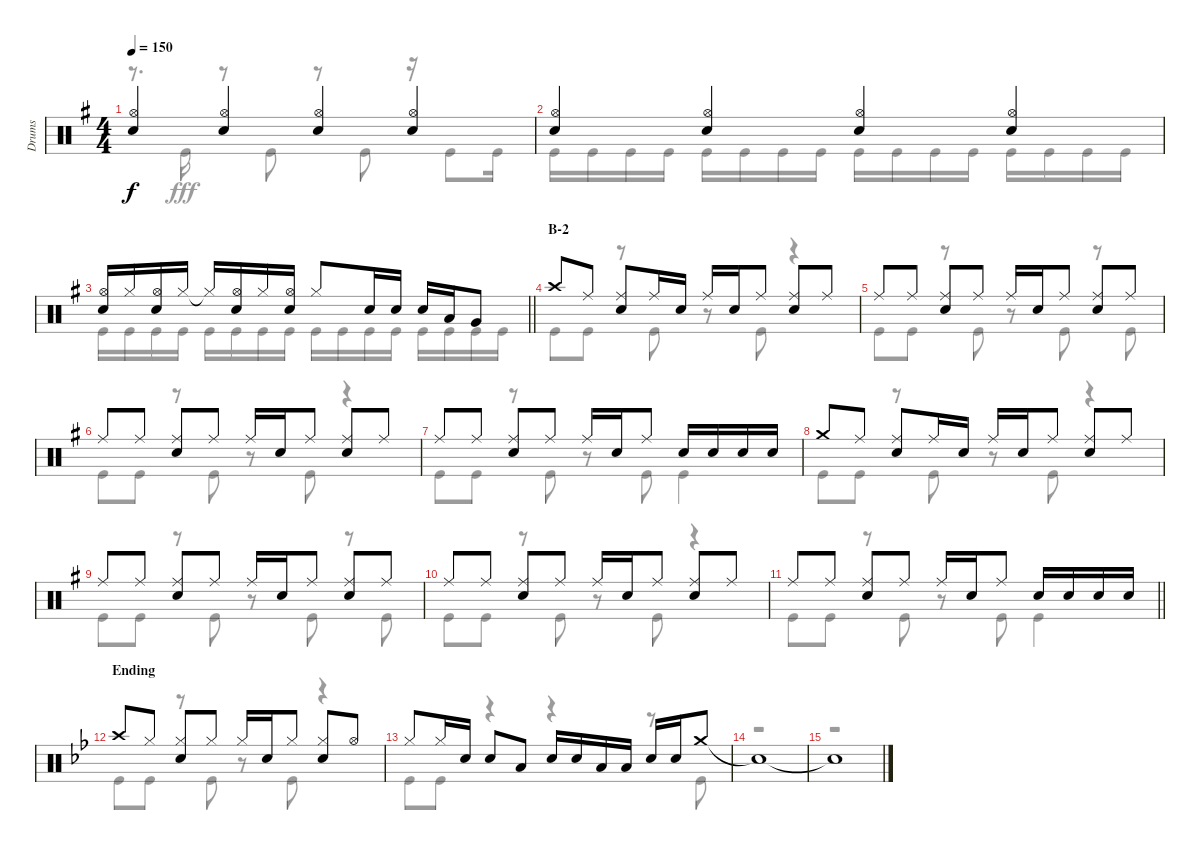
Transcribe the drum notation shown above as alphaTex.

\track ("Drums" "Drums") {instrument percussion}
\staff {score}
\articulation defaults
\voice
\ts (4 4)
\tempo 150
\clef neutral
\ks g
("Hi-Hat (open)" "Snare (hit) 2").4{dy f} ("Hi-Hat (open)" "Snare (hit) 2").4 ("Hi-Hat (open)" "Snare (hit) 2").4 ("Hi-Hat (open)" "Snare (hit) 2").4 |
("Hi-Hat (open)" "Snare (hit) 2").4 ("Hi-Hat (open)" "Snare (hit) 2").4 ("Hi-Hat (open)" "Snare (hit) 2").4 ("Hi-Hat (open)" "Snare (hit) 2").4 |
\barLineRight lightlight
("Hi-Hat (open)" "Snare (hit) 2").16 "Hi-Hat (closed)".16 ("Hi-Hat (open)" "Snare (hit) 2").16 "Hi-Hat (closed)".16 "Hi-Hat (closed)"{t}.16 ("Hi-Hat (open)" "Snare (hit) 2").16 "Hi-Hat (closed)".16 ("Hi-Hat (open)" "Snare (hit) 2").16 "Hi-Hat (closed)".8 "Snare (hit) 2".16 "Snare (hit) 2".16 "Snare (hit) 2".16 "Low Tom (hit)".16 "Very Low Tom (hit)".8 |
\section ("" "B-2")
"Crash high (hit)".8 "Ride (middle)".8 ("Ride (middle)" "Snare (hit) 2").8 "Ride (middle)".16 "Snare (hit) 2".16 "Ride (middle)".16 "Snare (hit) 2".16 "Ride (middle)".8 ("Ride (middle)" "Snare (hit) 2").8 "Ride (middle)".8 |
"Ride (middle)".8 "Ride (middle)".8 ("Ride (middle)" "Snare (hit) 2").8 "Ride (middle)".8 "Ride (middle)".16 "Snare (hit) 2".16 "Ride (middle)".8 ("Ride (middle)" "Snare (hit) 2").8 "Ride (middle)".8 |
"Ride (middle)".8 "Ride (middle)".8 ("Ride (middle)" "Snare (hit) 2").8 "Ride (middle)".8 "Ride (middle)".16 "Snare (hit) 2".16 "Ride (middle)".8 ("Ride (middle)" "Snare (hit) 2").8 "Ride (middle)".8 |
"Ride (middle)".8 "Ride (middle)".8 ("Ride (middle)" "Snare (hit) 2").8 "Ride (middle)".8 "Ride (middle)".16 "Snare (hit) 2".16 "Ride (middle)".8 "Snare (hit) 2".16 "Snare (hit) 2".16 "Snare (hit) 2".16 "Snare (hit) 2".16 |
"Crash medium (hit)".8 "Ride (middle)".8 ("Ride (middle)" "Snare (hit) 2").8 "Ride (middle)".16 "Snare (hit) 2".16 "Ride (middle)".16 "Snare (hit) 2".16 "Ride (middle)".8 ("Ride (middle)" "Snare (hit) 2").8 "Ride (middle)".8 |
"Ride (middle)".8 "Ride (middle)".8 ("Ride (middle)" "Snare (hit) 2").8 "Ride (middle)".8 "Ride (middle)".16 "Snare (hit) 2".16 "Ride (middle)".8 ("Ride (middle)" "Snare (hit) 2").8 "Ride (middle)".8 |
"Ride (middle)".8 "Ride (middle)".8 ("Ride (middle)" "Snare (hit) 2").8 "Ride (middle)".8 "Ride (middle)".16 "Snare (hit) 2".16 "Ride (middle)".8 ("Ride (middle)" "Snare (hit) 2").8 "Ride (middle)".8 |
\barLineRight lightlight "Ride (middle)".8 "Ride (middle)".8
("Ride (middle)" "Snare (hit) 2").8 "Ride (middle)".8 "Ride (middle)".16 "Snare (hit) 2".16 "Ride (middle)".8 "Snare (hit) 2".16 "Snare (hit) 2".16 "Snare (hit) 2".16 "Snare (hit) 2".16 |
\section ("" "Ending")
\ks bb "Crash high (hit)".8 "Hi-Hat (closed)".8
("Hi-Hat (closed)" "Snare (hit) 2").8 "Hi-Hat (closed)".8 "Hi-Hat (closed)".16 "Snare (hit) 2".16 "Hi-Hat (closed)".8 ("Hi-Hat (closed)" "Snare (hit) 2").8 "Hi-Hat (open)".8 |
"Hi-Hat (closed)".8 "Hi-Hat (closed)".16 "Snare (hit) 2".16 "Snare (hit) 2".8 "Low Tom (hit)".8 "Snare (hit) 2".16 "Snare (hit) 2".16 "Low Tom (hit)".16 "Low Tom (hit)".16 "Snare (hit) 2".16 "Snare (hit) 2".16 "Crash medium (hit)".8 |
"Snare (hit)"{t}.1 |
"Snare (hit)"{t}.1
\voice
\clef neutral
\ottava regular
\simile none
\ks g
r.8{d dy fff} "Kick (hit)".16 r.8 "Kick (hit)".8 r.8 "Kick (hit)".8 r.16 "Kick (hit)".8 "Kick (hit)".16 |
"Kick (hit)".16 "Kick (hit)".16 "Kick (hit)".16 "Kick (hit)".16 "Kick (hit)".16 "Kick (hit)".16 "Kick (hit)".16 "Kick (hit)".16 "Kick (hit)".16 "Kick (hit)".16 "Kick (hit)".16 "Kick (hit)".16 "Kick (hit)".16 "Kick (hit)".16 "Kick (hit)".16 "Kick (hit)".16 |
\barLineRight lightlight "Kick (hit)".16 "Kick (hit)".16 "Kick (hit)".16 "Kick (hit)".16 "Kick (hit)".16 "Kick (hit)".16 "Kick (hit)".16 "Kick (hit)".16 "Kick (hit)".16 "Kick (hit)".16 "Kick (hit)".16 "Kick (hit)".16 "Kick (hit)".16 "Kick (hit)".16 "Kick (hit)".16 "Kick (hit)".16
|
"Kick (hit)".8 "Kick (hit)".8 r.8 "Kick (hit)".8 r.8 "Kick (hit)".8 r.4 |
"Kick (hit)".8 "Kick (hit)".8 r.8 "Kick (hit)".8 r.8 "Kick (hit)".8 r.8 "Kick (hit)".8 |
"Kick (hit)".8 "Kick (hit)".8 r.8 "Kick (hit)".8 r.8 "Kick (hit)".8 r.4 |
"Kick (hit)".8 "Kick (hit)".8 r.8 "Kick (hit)".8 r.8 "Kick (hit)".8 "Kick (hit)".4 |
"Kick (hit)".8 "Kick (hit)".8 r.8 "Kick (hit)".8 r.8 "Kick (hit)".8 r.4 |
"Kick (hit)".8 "Kick (hit)".8 r.8 "Kick (hit)".8 r.8 "Kick (hit)".8 r.8 "Kick (hit)".8 |
"Kick (hit)".8 "Kick (hit)".8 r.8 "Kick (hit)".8 r.8 "Kick (hit)".8 r.4 |
\barLineRight lightlight "Kick (hit)".8 "Kick (hit)".8
r.8 "Kick (hit)".8 r.8 "Kick (hit)".8 "Kick (hit)".4 |
\ks bb "Kick (hit)".8 "Kick (hit)".8
r.8 "Kick (hit)".8 r.8 "Kick (hit)".8 r.4 |
"Kick (hit)".8 "Kick (hit)".8 r.4 r.4 r.8 "Kick (hit)".8 |
r.1 |
r.1
